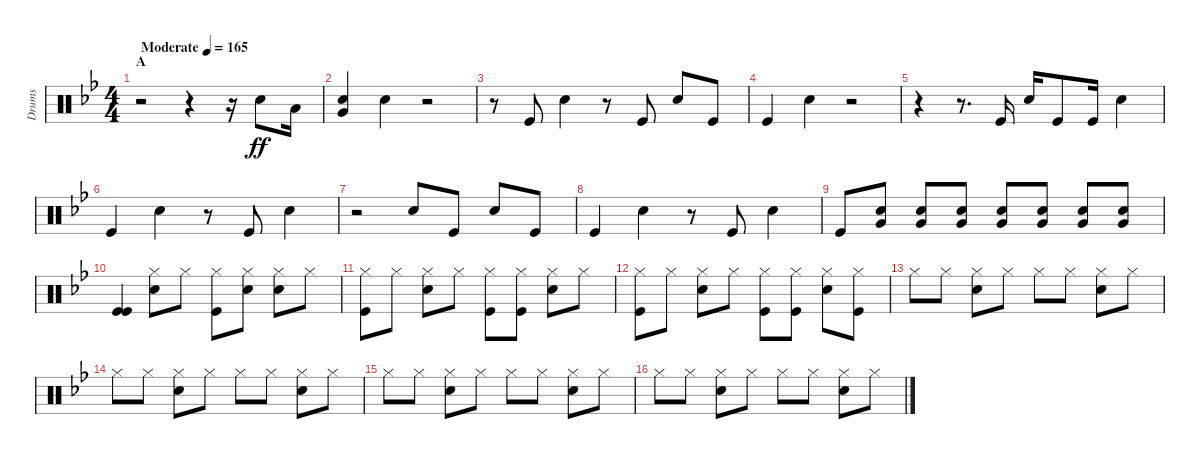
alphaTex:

\track ("Drums" "Drums") {instrument percussion}
\staff {score}
\articulation defaults
\ts (4 4)
\section ("" "A")
\tempo (165 "Moderate")
\clef neutral
\ks bb
r.2{dy ff} r.4 r.16 "Snare (hit) 2".8 "Low Tom (hit)".16 |
("Very Low Tom (hit)" "Snare (hit) 2").4 "Snare (hit) 2".4 r.2 |
r.8 "Kick (hit)".8 "Snare (hit) 2".4 r.8 "Kick (hit)".8 "Snare (hit) 2".8 "Kick (hit)".8 |
"Kick (hit)".4 "Snare (hit) 2".4 r.2 |
r.4 r.8{d} "Kick (hit)".16 "Snare (hit) 2".16 "Kick (hit)".8 "Kick (hit)".16 "Snare (hit) 2".4 |
"Kick (hit)".4 "Snare (hit) 2".4 r.8 "Kick (hit)".8 "Snare (hit) 2".4 |
r.2 "Snare (hit) 2".8 "Kick (hit)".8 "Snare (hit) 2".8 "Kick (hit)".8 |
"Kick (hit)".4 "Snare (hit) 2".4 r.8 "Kick (hit)".8 "Snare (hit) 2".4 |
"Kick (hit)".8 ("Snare (hit) 2" "Very Low Tom (hit)").8 ("Snare (hit) 2" "Very Low Tom (hit)").8 ("Snare (hit) 2" "Very Low Tom (hit)").8 ("Snare (hit) 2" "Very Low Tom (hit)").8 ("Snare (hit) 2" "Very Low Tom (hit)").8 ("Snare (hit) 2" "Very Low Tom (hit)").8 ("Snare (hit) 2" "Very Low Tom (hit)").8 |
("Kick (hit)" "Kick (hit)").4 ("Hi-Hat (closed)" "Snare (hit) 2").8 "Hi-Hat (closed)".8 ("Hi-Hat (closed)" "Kick (hit)").8 ("Hi-Hat (closed)" "Snare (hit) 2").8 ("Hi-Hat (closed)" "Snare (hit) 2").8 "Hi-Hat (closed)".8 |
("Hi-Hat (closed)" "Kick (hit)").8 "Hi-Hat (closed)".8 ("Hi-Hat (closed)" "Snare (hit) 2").8 "Hi-Hat (closed)".8 ("Hi-Hat (closed)" "Kick (hit)").8 ("Hi-Hat (closed)" "Kick (hit)").8 ("Hi-Hat (closed)" "Snare (hit) 2").8 "Hi-Hat (closed)".8 |
("Hi-Hat (closed)" "Kick (hit)").8 "Hi-Hat (closed)".8 ("Hi-Hat (closed)" "Snare (hit) 2").8 "Hi-Hat (closed)".8 ("Hi-Hat (closed)" "Kick (hit)").8 ("Hi-Hat (closed)" "Kick (hit)").8 ("Hi-Hat (closed)" "Snare (hit) 2").8 ("Hi-Hat (closed)" "Kick (hit)").8 |
"Hi-Hat (closed)".8 "Hi-Hat (closed)".8 ("Hi-Hat (closed)" "Snare (hit) 2").8 "Hi-Hat (closed)".8 "Hi-Hat (closed)".8 "Hi-Hat (closed)".8 ("Hi-Hat (closed)" "Snare (hit) 2").8 "Hi-Hat (closed)".8 |
"Hi-Hat (closed)".8 "Hi-Hat (closed)".8 ("Hi-Hat (closed)" "Snare (hit) 2").8 "Hi-Hat (closed)".8 "Hi-Hat (closed)".8 "Hi-Hat (closed)".8 ("Hi-Hat (closed)" "Snare (hit) 2").8 "Hi-Hat (closed)".8 |
"Hi-Hat (closed)".8 "Hi-Hat (closed)".8 ("Hi-Hat (closed)" "Snare (hit) 2").8 "Hi-Hat (closed)".8 "Hi-Hat (closed)".8 "Hi-Hat (closed)".8 ("Hi-Hat (closed)" "Snare (hit) 2").8 "Hi-Hat (closed)".8 |
"Hi-Hat (closed)".8 "Hi-Hat (closed)".8 ("Hi-Hat (closed)" "Snare (hit) 2").8 "Hi-Hat (closed)".8 "Hi-Hat (closed)".8 "Hi-Hat (closed)".8 ("Hi-Hat (closed)" "Snare (hit) 2").8 "Hi-Hat (closed)".8
